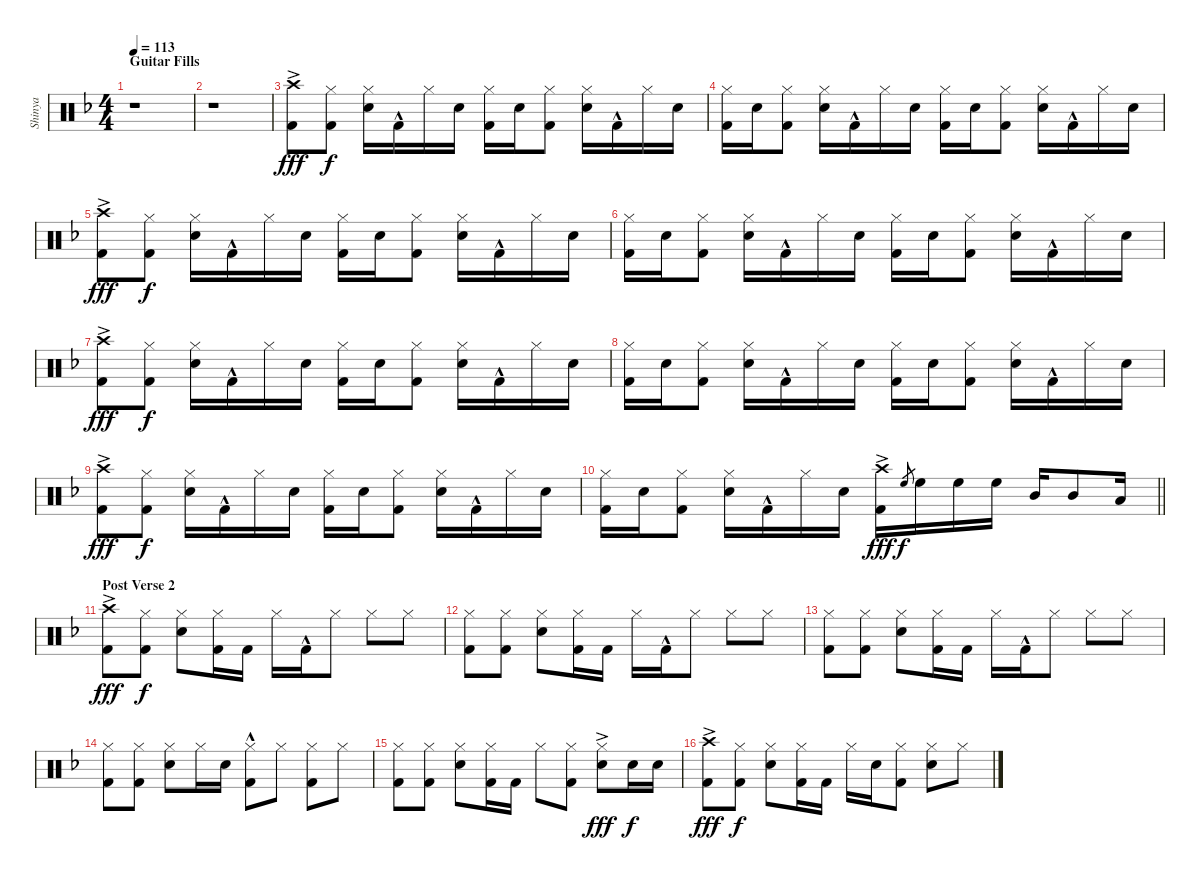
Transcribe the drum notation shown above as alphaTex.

\track ("Shinya" "Shinya") {instrument percussion}
\staff {score}
\articulation defaults
\ts (4 4)
\section ("" "Guitar Fills")
\tempo 113
\clef neutral
\ks f
r.1{dy f} |
r.1 |
("Crash high (hit)"{ac} "Kick (hit) 2").8{dy fff} ("Hi-Hat (closed)" "Kick (hit) 2").8{dy f} ("Hi-Hat (closed)" "Snare (hit) 2").16 "Kick (hit) 2"{hac}.16 "Hi-Hat (closed)".16 "Snare (hit) 2".16 ("Hi-Hat (closed)" "Kick (hit) 2").16 "Snare (hit) 2".16 ("Hi-Hat (closed)" "Kick (hit) 2").8 ("Hi-Hat (closed)" "Snare (hit) 2").16 "Kick (hit) 2"{hac}.16 "Hi-Hat (closed)".16 "Snare (hit) 2".16 |
("Hi-Hat (closed)" "Kick (hit) 2").16 "Snare (hit) 2".16 ("Hi-Hat (closed)" "Kick (hit) 2").8 ("Hi-Hat (closed)" "Snare (hit) 2").16 "Kick (hit) 2"{hac}.16 "Hi-Hat (closed)".16 "Snare (hit) 2".16 ("Hi-Hat (closed)" "Kick (hit) 2").16 "Snare (hit) 2".16 ("Hi-Hat (closed)" "Kick (hit) 2").8 ("Hi-Hat (closed)" "Snare (hit) 2").16 "Kick (hit) 2"{hac}.16 "Hi-Hat (closed)".16 "Snare (hit) 2".16 |
("Crash high (hit)"{ac} "Kick (hit) 2").8{dy fff} ("Hi-Hat (closed)" "Kick (hit) 2").8{dy f} ("Hi-Hat (closed)" "Snare (hit) 2").16 "Kick (hit) 2"{hac}.16 "Hi-Hat (closed)".16 "Snare (hit) 2".16 ("Hi-Hat (closed)" "Kick (hit) 2").16 "Snare (hit) 2".16 ("Hi-Hat (closed)" "Kick (hit) 2").8 ("Hi-Hat (closed)" "Snare (hit) 2").16 "Kick (hit) 2"{hac}.16 "Hi-Hat (closed)".16 "Snare (hit) 2".16 |
("Hi-Hat (closed)" "Kick (hit) 2").16 "Snare (hit) 2".16 ("Hi-Hat (closed)" "Kick (hit) 2").8 ("Hi-Hat (closed)" "Snare (hit) 2").16 "Kick (hit) 2"{hac}.16 "Hi-Hat (closed)".16 "Snare (hit) 2".16 ("Hi-Hat (closed)" "Kick (hit) 2").16 "Snare (hit) 2".16 ("Hi-Hat (closed)" "Kick (hit) 2").8 ("Hi-Hat (closed)" "Snare (hit) 2").16 "Kick (hit) 2"{hac}.16 "Hi-Hat (closed)".16 "Snare (hit) 2".16 |
("Crash high (hit)"{ac} "Kick (hit) 2").8{dy fff} ("Hi-Hat (closed)" "Kick (hit) 2").8{dy f} ("Hi-Hat (closed)" "Snare (hit) 2").16 "Kick (hit) 2"{hac}.16 "Hi-Hat (closed)".16 "Snare (hit) 2".16 ("Hi-Hat (closed)" "Kick (hit) 2").16 "Snare (hit) 2".16 ("Hi-Hat (closed)" "Kick (hit) 2").8 ("Hi-Hat (closed)" "Snare (hit) 2").16 "Kick (hit) 2"{hac}.16 "Hi-Hat (closed)".16 "Snare (hit) 2".16 |
("Hi-Hat (closed)" "Kick (hit) 2").16 "Snare (hit) 2".16 ("Hi-Hat (closed)" "Kick (hit) 2").8 ("Hi-Hat (closed)" "Snare (hit) 2").16 "Kick (hit) 2"{hac}.16 "Hi-Hat (closed)".16 "Snare (hit) 2".16 ("Hi-Hat (closed)" "Kick (hit) 2").16 "Snare (hit) 2".16 ("Hi-Hat (closed)" "Kick (hit) 2").8 ("Hi-Hat (closed)" "Snare (hit) 2").16 "Kick (hit) 2"{hac}.16 "Hi-Hat (closed)".16 "Snare (hit) 2".16 |
("Crash high (hit)"{ac} "Kick (hit) 2").8{dy fff} ("Hi-Hat (closed)" "Kick (hit) 2").8{dy f} ("Hi-Hat (closed)" "Snare (hit) 2").16 "Kick (hit) 2"{hac}.16 "Hi-Hat (closed)".16 "Snare (hit) 2".16 ("Hi-Hat (closed)" "Kick (hit) 2").16 "Snare (hit) 2".16 ("Hi-Hat (closed)" "Kick (hit) 2").8 ("Hi-Hat (closed)" "Snare (hit) 2").16 "Kick (hit) 2"{hac}.16 "Hi-Hat (closed)".16 "Snare (hit) 2".16 |
\barLineRight lightlight
("Hi-Hat (closed)" "Kick (hit) 2").16 "Snare (hit) 2".16 ("Hi-Hat (closed)" "Kick (hit) 2").8 ("Hi-Hat (closed)" "Snare (hit) 2").16 "Kick (hit) 2"{hac}.16 "Hi-Hat (closed)".16 "Snare (hit) 2".16 ("Crash high (hit)"{ac} "Kick (hit) 2").16{dy fff} "High Floor Tom (hit)".8{gr dy f} "High Floor Tom (hit)".16 "High Floor Tom (hit)".16 "High Floor Tom (hit)".16 "Mid Tom (hit)".16 "Mid Tom (hit)".8 "Low Tom (hit)".16 |
\section ("" "Post Verse 2")
("Crash high (hit)"{ac} "Kick (hit) 2").8{dy fff} ("Hi-Hat (closed)" "Kick (hit) 2").8{dy f} ("Hi-Hat (closed)" "Snare (hit) 2").8 ("Hi-Hat (closed)" "Kick (hit) 2").16 "Kick (hit) 2".16 "Hi-Hat (closed)".16 "Kick (hit) 2"{hac}.16 "Hi-Hat (closed)".8 "Hi-Hat (closed)".8 "Hi-Hat (closed)".8 |
("Hi-Hat (closed)" "Kick (hit) 2").8 ("Hi-Hat (closed)" "Kick (hit) 2").8 ("Hi-Hat (closed)" "Snare (hit) 2").8 ("Hi-Hat (closed)" "Kick (hit) 2").16 "Kick (hit) 2".16 "Hi-Hat (closed)".16 "Kick (hit) 2"{hac}.16 "Hi-Hat (closed)".8 "Hi-Hat (closed)".8 "Hi-Hat (closed)".8 |
("Hi-Hat (closed)" "Kick (hit) 2").8 ("Hi-Hat (closed)" "Kick (hit) 2").8 ("Hi-Hat (closed)" "Snare (hit) 2").8 ("Hi-Hat (closed)" "Kick (hit) 2").16 "Kick (hit) 2".16 "Hi-Hat (closed)".16 "Kick (hit) 2"{hac}.16 "Hi-Hat (closed)".8 "Hi-Hat (closed)".8 "Hi-Hat (closed)".8 |
("Hi-Hat (closed)" "Kick (hit) 2").8 ("Hi-Hat (closed)" "Kick (hit) 2").8 ("Hi-Hat (closed)" "Snare (hit) 2").8 "Hi-Hat (closed)".16 "Snare (hit) 2".16 ("Hi-Hat (closed)" "Kick (hit) 2"{hac}).8 "Hi-Hat (closed)".8 ("Hi-Hat (closed)" "Kick (hit) 2").8 "Hi-Hat (closed)".8 |
("Hi-Hat (closed)" "Kick (hit) 2").8 ("Hi-Hat (closed)" "Kick (hit) 2").8 ("Hi-Hat (closed)" "Snare (hit) 2").8 ("Hi-Hat (closed)" "Kick (hit) 2").16 "Kick (hit) 2".16 "Hi-Hat (closed)".8 ("Hi-Hat (closed)" "Kick (hit) 2").8 ("Hi-Hat (closed)"{ac} "Snare (hit) 2").8{dy fff} "Snare (hit) 2".16{dy f} "Snare (hit) 2".16 |
("Crash high (hit)"{ac} "Kick (hit) 2").8{dy fff} ("Hi-Hat (closed)" "Kick (hit) 2").8{dy f} ("Hi-Hat (closed)" "Snare (hit) 2").8 ("Hi-Hat (closed)" "Kick (hit) 2").16 "Kick (hit) 2".16 "Hi-Hat (closed)".16 "Snare (hit) 2".16 ("Hi-Hat (closed)" "Kick (hit) 2").8 ("Hi-Hat (closed)" "Snare (hit) 2").8 "Hi-Hat (closed)".8
